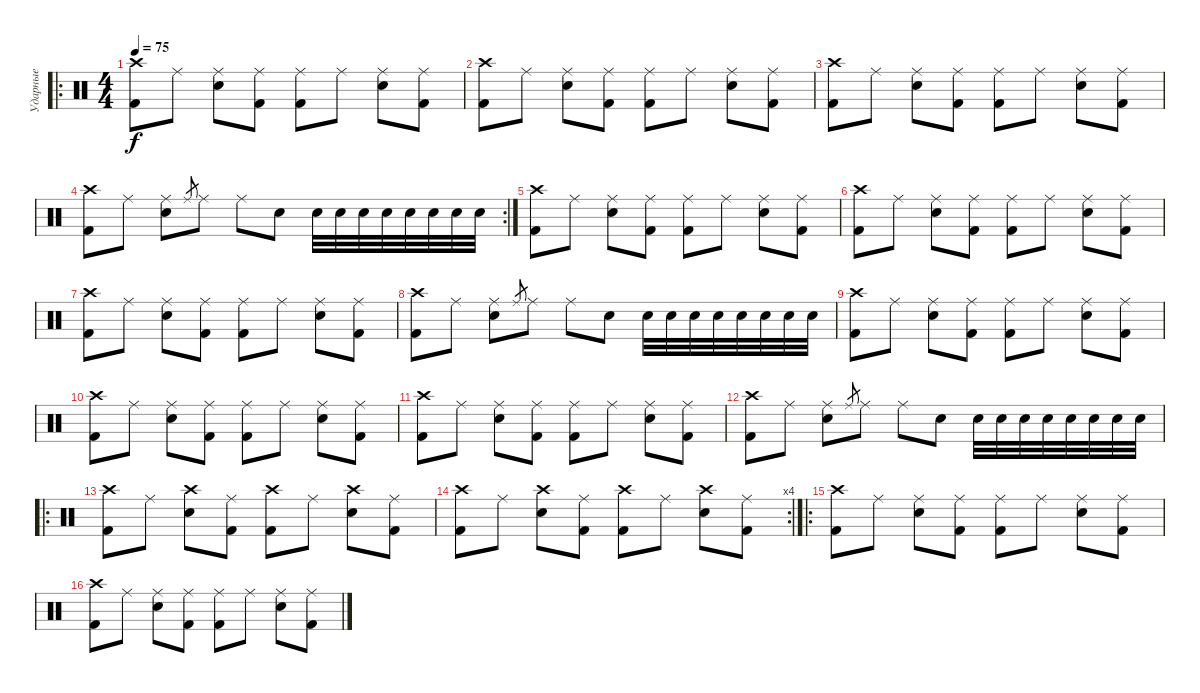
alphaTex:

\track ("Ударные" "Ударные") {instrument percussion}
\staff {score}
\articulation defaults
\ro
\ts (4 4)
\tempo 75
\clef neutral
\ks c
("Crash high (hit)" "Kick (hit) 2").8{dy f} "Ride (middle)".8 ("Ride (middle)" "Electric Snare (hit)").8 ("Ride (middle)" "Kick (hit) 2").8 ("Ride (middle)" "Kick (hit) 2").8 "Ride (middle)".8 ("Ride (middle)" "Electric Snare (hit)").8 ("Ride (middle)" "Kick (hit) 2").8 |
("Crash high (hit)" "Kick (hit) 2").8 "Ride (middle)".8 ("Ride (middle)" "Electric Snare (hit)").8 ("Ride (middle)" "Kick (hit) 2").8 ("Ride (middle)" "Kick (hit) 2").8 "Ride (middle)".8 ("Ride (middle)" "Electric Snare (hit)").8 ("Ride (middle)" "Kick (hit) 2").8 |
("Crash high (hit)" "Kick (hit) 2").8 "Ride (middle)".8 ("Ride (middle)" "Electric Snare (hit)").8 ("Ride (middle)" "Kick (hit) 2").8 ("Ride (middle)" "Kick (hit) 2").8 "Ride (middle)".8 ("Ride (middle)" "Electric Snare (hit)").8 ("Ride (middle)" "Kick (hit) 2").8 |
\rc 2
("Crash high (hit)" "Kick (hit) 2").8 "Ride (middle)".8 ("Ride (middle)" "Electric Snare (hit)").8 "Ride (middle)".8{gr} "Ride (middle)".8 "Ride (middle)".8 "Electric Snare (hit)".8 "Electric Snare (hit)".32 "Electric Snare (hit)".32 "Electric Snare (hit)".32 "Electric Snare (hit)".32 "Electric Snare (hit)".32 "Electric Snare (hit)".32 "Electric Snare (hit)".32 "Electric Snare (hit)".32 |
("Crash high (hit)" "Kick (hit) 2").8 "Ride (middle)".8 ("Ride (middle)" "Electric Snare (hit)").8 ("Ride (middle)" "Kick (hit) 2").8 ("Ride (middle)" "Kick (hit) 2").8 "Ride (middle)".8 ("Ride (middle)" "Electric Snare (hit)").8 ("Ride (middle)" "Kick (hit) 2").8 |
("Crash high (hit)" "Kick (hit) 2").8 "Ride (middle)".8 ("Ride (middle)" "Electric Snare (hit)").8 ("Ride (middle)" "Kick (hit) 2").8 ("Ride (middle)" "Kick (hit) 2").8 "Ride (middle)".8 ("Ride (middle)" "Electric Snare (hit)").8 ("Ride (middle)" "Kick (hit) 2").8 |
("Crash high (hit)" "Kick (hit) 2").8 "Ride (middle)".8 ("Ride (middle)" "Electric Snare (hit)").8 ("Ride (middle)" "Kick (hit) 2").8 ("Ride (middle)" "Kick (hit) 2").8 "Ride (middle)".8 ("Ride (middle)" "Electric Snare (hit)").8 ("Ride (middle)" "Kick (hit) 2").8 |
("Crash high (hit)" "Kick (hit) 2").8 "Ride (middle)".8 ("Ride (middle)" "Electric Snare (hit)").8 "Ride (middle)".8{gr} "Ride (middle)".8 "Ride (middle)".8 "Electric Snare (hit)".8 "Electric Snare (hit)".32 "Electric Snare (hit)".32 "Electric Snare (hit)".32 "Electric Snare (hit)".32 "Electric Snare (hit)".32 "Electric Snare (hit)".32 "Electric Snare (hit)".32 "Electric Snare (hit)".32 |
("Crash high (hit)" "Kick (hit) 2").8 "Ride (middle)".8 ("Ride (middle)" "Electric Snare (hit)").8 ("Ride (middle)" "Kick (hit) 2").8 ("Ride (middle)" "Kick (hit) 2").8 "Ride (middle)".8 ("Ride (middle)" "Electric Snare (hit)").8 ("Ride (middle)" "Kick (hit) 2").8 |
("Crash high (hit)" "Kick (hit) 2").8 "Ride (middle)".8 ("Ride (middle)" "Electric Snare (hit)").8 ("Ride (middle)" "Kick (hit) 2").8 ("Ride (middle)" "Kick (hit) 2").8 "Ride (middle)".8 ("Ride (middle)" "Electric Snare (hit)").8 ("Ride (middle)" "Kick (hit) 2").8 |
("Crash high (hit)" "Kick (hit) 2").8 "Ride (middle)".8 ("Ride (middle)" "Electric Snare (hit)").8 ("Ride (middle)" "Kick (hit) 2").8 ("Ride (middle)" "Kick (hit) 2").8 "Ride (middle)".8 ("Ride (middle)" "Electric Snare (hit)").8 ("Ride (middle)" "Kick (hit) 2").8 |
("Crash high (hit)" "Kick (hit) 2").8 "Ride (middle)".8 ("Ride (middle)" "Electric Snare (hit)").8 "Ride (middle)".8{gr} "Ride (middle)".8 "Ride (middle)".8 "Electric Snare (hit)".8 "Electric Snare (hit)".32 "Electric Snare (hit)".32 "Electric Snare (hit)".32 "Electric Snare (hit)".32 "Electric Snare (hit)".32 "Electric Snare (hit)".32 "Electric Snare (hit)".32 "Electric Snare (hit)".32 |
\ro
("Crash high (hit)" "Kick (hit) 2").8 "Ride (middle)".8 ("Crash high (hit)" "Electric Snare (hit)").8 ("Ride (middle)" "Kick (hit) 2").8 ("Crash high (hit)" "Kick (hit) 2").8 "Ride (middle)".8 ("Crash high (hit)" "Electric Snare (hit)").8 ("Ride (middle)" "Kick (hit) 2").8 |
\rc 4
("Crash high (hit)" "Kick (hit) 2").8 "Ride (middle)".8 ("Crash high (hit)" "Electric Snare (hit)").8 ("Ride (middle)" "Kick (hit) 2").8 ("Crash high (hit)" "Kick (hit) 2").8 "Ride (middle)".8 ("Crash high (hit)" "Electric Snare (hit)").8 ("Ride (middle)" "Kick (hit) 2").8 |
\ro
("Crash high (hit)" "Kick (hit) 2").8 "Ride (middle)".8 ("Ride (middle)" "Electric Snare (hit)").8 ("Ride (middle)" "Kick (hit) 2").8 ("Ride (middle)" "Kick (hit) 2").8 "Ride (middle)".8 ("Ride (middle)" "Electric Snare (hit)").8 ("Ride (middle)" "Kick (hit) 2").8 |
("Crash high (hit)" "Kick (hit) 2").8 "Ride (middle)".8 ("Ride (middle)" "Electric Snare (hit)").8 ("Ride (middle)" "Kick (hit) 2").8 ("Ride (middle)" "Kick (hit) 2").8 "Ride (middle)".8 ("Ride (middle)" "Electric Snare (hit)").8 ("Ride (middle)" "Kick (hit) 2").8
